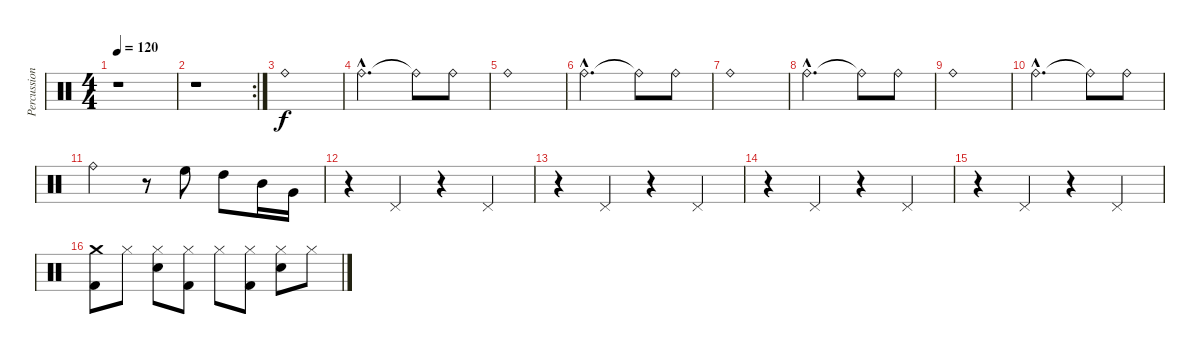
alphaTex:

\track ("Percussion" "Percussion") {instrument percussion}
\staff {score}
\articulation defaults
\ts (4 4)
\tempo 120
\tempo 102
\tempo 120
\clef neutral
\ks c
r.1{dy f} |
\rc 2
r.1 |
"Ride (bell)".1 |
"Ride (bell)"{hac}.2{d} "Ride (bell)"{t}.8 "Ride (bell)".8 |
"Ride (bell)".1 |
"Ride (bell)"{hac}.2{d} "Ride (bell)"{t}.8 "Ride (bell)".8 |
"Ride (bell)".1 |
"Ride (bell)"{hac}.2{d} "Ride (bell)"{t}.8 "Ride (bell)".8 |
"Ride (bell)".1 |
"Ride (bell)"{hac}.2{d} "Ride (bell)"{t}.8 "Ride (bell)".8 |
"Ride (bell)".2 r.8 "High Floor Tom (hit)".8 "High Tom (hit)".8 "Mid Tom (hit)".16 "Very Low Tom (hit)".16 |
r.4 "Pedal Hi-Hat (hit)".4 r.4 "Pedal Hi-Hat (hit)".4 |
r.4 "Pedal Hi-Hat (hit)".4 r.4 "Pedal Hi-Hat (hit)".4 |
r.4 "Pedal Hi-Hat (hit)".4 r.4 "Pedal Hi-Hat (hit)".4 |
r.4 "Pedal Hi-Hat (hit)".4 r.4 "Pedal Hi-Hat (hit)".4 |
("Crash medium (hit)" "Kick (hit) 2").8 "Hi-Hat (closed)".8 ("Hi-Hat (closed)" "Snare (hit) 2").8 ("Hi-Hat (closed)" "Kick (hit) 2").8 "Hi-Hat (closed)".8 ("Hi-Hat (closed)" "Kick (hit) 2").8 ("Hi-Hat (closed)" "Snare (hit) 2").8 "Hi-Hat (closed)".8
